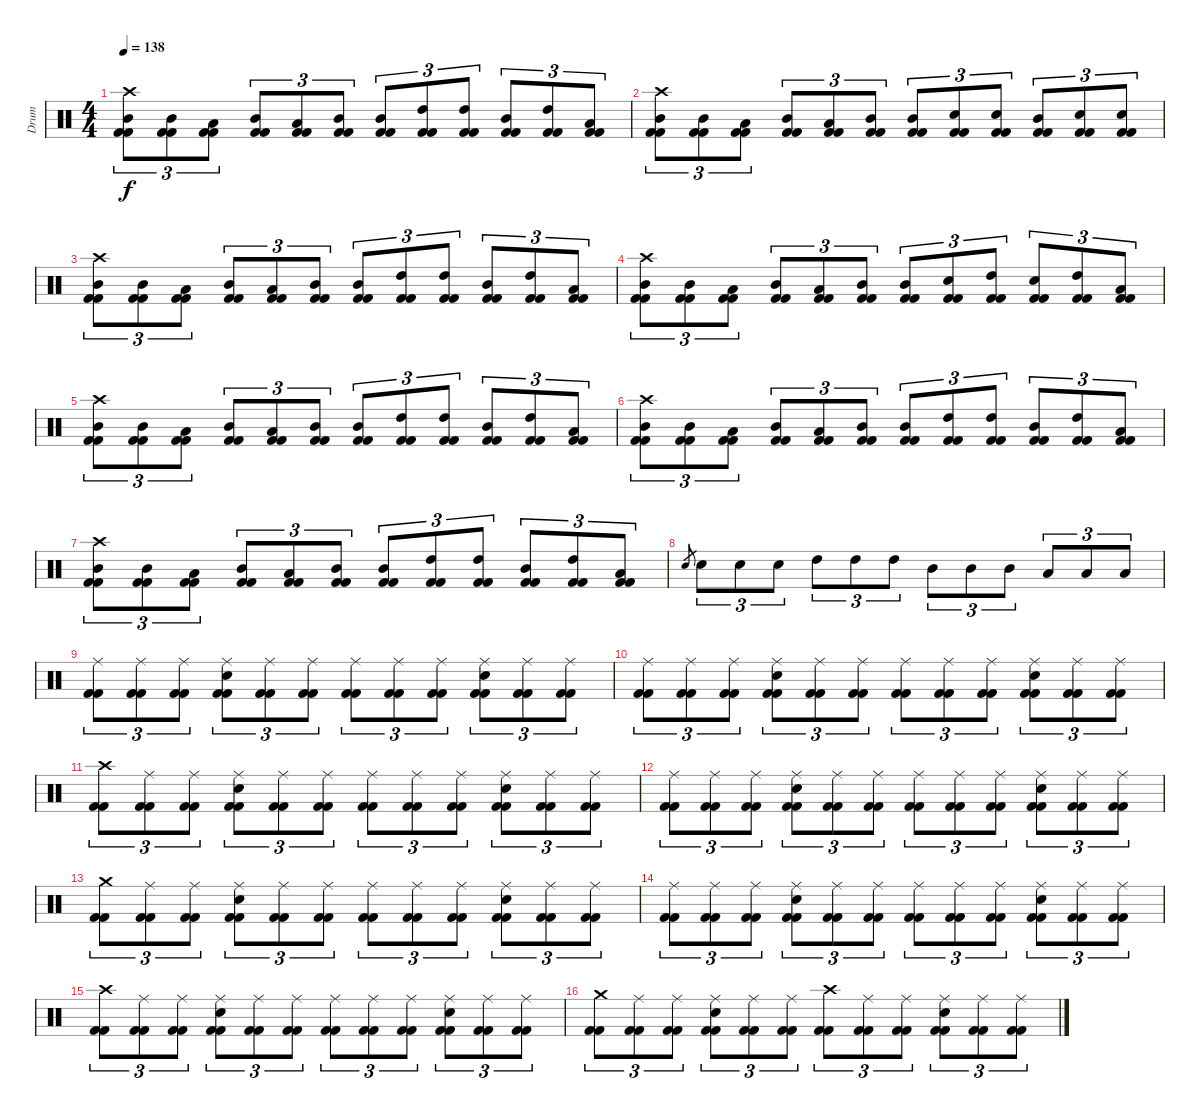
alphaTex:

\track ("Drum" "Drum") {instrument percussion}
\staff {score}
\articulation defaults
\ts (4 4)
\tempo 138
\clef neutral
\ks c
("Kick (hit) 2" "Kick (hit) 2" "Mid Tom (hit)" "Crash high (hit)").8{tu (3 2) dy f} ("Kick (hit) 2" "Kick (hit) 2" "Mid Tom (hit)").8{tu (3 2)} ("Kick (hit) 2" "Kick (hit) 2" "Low Tom (hit)").8{tu (3 2)} ("Kick (hit) 2" "Kick (hit) 2" "Mid Tom (hit)").8{tu (3 2)} ("Kick (hit) 2" "Kick (hit) 2" "Low Tom (hit)").8{tu (3 2)} ("Kick (hit) 2" "Kick (hit) 2" "Mid Tom (hit)").8{tu (3 2)} ("Kick (hit) 2" "Kick (hit) 2" "Mid Tom (hit)").8{tu (3 2)} ("Kick (hit) 2" "Kick (hit) 2" "High Tom (hit)").8{tu (3 2)} ("Kick (hit) 2" "Kick (hit) 2" "High Tom (hit)").8{tu (3 2)} ("Kick (hit) 2" "Kick (hit) 2" "Mid Tom (hit)").8{tu (3 2)} ("Kick (hit) 2" "Kick (hit) 2" "High Tom (hit)").8{tu (3 2)} ("Kick (hit) 2" "Kick (hit) 2" "Low Tom (hit)").8{tu (3 2)} |
("Kick (hit) 2" "Kick (hit) 2" "Mid Tom (hit)" "Crash high (hit)").8{tu (3 2)} ("Kick (hit) 2" "Kick (hit) 2" "Mid Tom (hit)").8{tu (3 2)} ("Kick (hit) 2" "Kick (hit) 2" "Low Tom (hit)").8{tu (3 2)} ("Kick (hit) 2" "Kick (hit) 2" "Mid Tom (hit)").8{tu (3 2)} ("Kick (hit) 2" "Kick (hit) 2" "Low Tom (hit)").8{tu (3 2)} ("Kick (hit) 2" "Kick (hit) 2" "Mid Tom (hit)").8{tu (3 2)} ("Kick (hit) 2" "Kick (hit) 2" "Mid Tom (hit)").8{tu (3 2)} ("Kick (hit) 2" "Kick (hit) 2" "Electric Snare (hit)").8{tu (3 2)} ("Kick (hit) 2" "Kick (hit) 2" "Electric Snare (hit)").8{tu (3 2)} ("Kick (hit) 2" "Kick (hit) 2" "Mid Tom (hit)").8{tu (3 2)} ("Kick (hit) 2" "Kick (hit) 2" "Electric Snare (hit)").8{tu (3 2)} ("Kick (hit) 2" "Kick (hit) 2" "Electric Snare (hit)").8{tu (3 2)} |
("Kick (hit) 2" "Kick (hit) 2" "Mid Tom (hit)" "Crash high (hit)").8{tu (3 2)} ("Kick (hit) 2" "Kick (hit) 2" "Mid Tom (hit)").8{tu (3 2)} ("Kick (hit) 2" "Kick (hit) 2" "Low Tom (hit)").8{tu (3 2)} ("Kick (hit) 2" "Kick (hit) 2" "Mid Tom (hit)").8{tu (3 2)} ("Kick (hit) 2" "Kick (hit) 2" "Low Tom (hit)").8{tu (3 2)} ("Kick (hit) 2" "Kick (hit) 2" "Mid Tom (hit)").8{tu (3 2)} ("Kick (hit) 2" "Kick (hit) 2" "Mid Tom (hit)").8{tu (3 2)} ("Kick (hit) 2" "Kick (hit) 2" "High Tom (hit)").8{tu (3 2)} ("Kick (hit) 2" "Kick (hit) 2" "High Tom (hit)").8{tu (3 2)} ("Kick (hit) 2" "Kick (hit) 2" "Mid Tom (hit)").8{tu (3 2)} ("Kick (hit) 2" "Kick (hit) 2" "High Tom (hit)").8{tu (3 2)} ("Kick (hit) 2" "Kick (hit) 2" "Low Tom (hit)").8{tu (3 2)} |
("Kick (hit) 2" "Kick (hit) 2" "Mid Tom (hit)" "Crash high (hit)").8{tu (3 2)} ("Kick (hit) 2" "Kick (hit) 2" "Mid Tom (hit)").8{tu (3 2)} ("Kick (hit) 2" "Kick (hit) 2" "Low Tom (hit)").8{tu (3 2)} ("Kick (hit) 2" "Kick (hit) 2" "Mid Tom (hit)").8{tu (3 2)} ("Kick (hit) 2" "Kick (hit) 2" "Low Tom (hit)").8{tu (3 2)} ("Kick (hit) 2" "Kick (hit) 2" "Mid Tom (hit)").8{tu (3 2)} ("Kick (hit) 2" "Kick (hit) 2" "Mid Tom (hit)").8{tu (3 2)} ("Kick (hit) 2" "Kick (hit) 2" "Electric Snare (hit)").8{tu (3 2)} ("Kick (hit) 2" "Kick (hit) 2" "High Tom (hit)").8{tu (3 2)} ("Kick (hit) 2" "Kick (hit) 2" "Electric Snare (hit)").8{tu (3 2)} ("Kick (hit) 2" "Kick (hit) 2" "High Tom (hit)").8{tu (3 2)} ("Kick (hit) 2" "Kick (hit) 2" "Low Tom (hit)").8{tu (3 2)} |
("Kick (hit) 2" "Kick (hit) 2" "Mid Tom (hit)" "Crash high (hit)").8{tu (3 2)} ("Kick (hit) 2" "Kick (hit) 2" "Mid Tom (hit)").8{tu (3 2)} ("Kick (hit) 2" "Kick (hit) 2" "Low Tom (hit)").8{tu (3 2)} ("Kick (hit) 2" "Kick (hit) 2" "Mid Tom (hit)").8{tu (3 2)} ("Kick (hit) 2" "Kick (hit) 2" "Low Tom (hit)").8{tu (3 2)} ("Kick (hit) 2" "Kick (hit) 2" "Mid Tom (hit)").8{tu (3 2)} ("Kick (hit) 2" "Kick (hit) 2" "Mid Tom (hit)").8{tu (3 2)} ("Kick (hit) 2" "Kick (hit) 2" "High Tom (hit)").8{tu (3 2)} ("Kick (hit) 2" "Kick (hit) 2" "High Tom (hit)").8{tu (3 2)} ("Kick (hit) 2" "Kick (hit) 2" "Mid Tom (hit)").8{tu (3 2)} ("Kick (hit) 2" "Kick (hit) 2" "High Tom (hit)").8{tu (3 2)} ("Kick (hit) 2" "Kick (hit) 2" "Low Tom (hit)").8{tu (3 2)} |
("Kick (hit) 2" "Kick (hit) 2" "Mid Tom (hit)" "Crash high (hit)").8{tu (3 2)} ("Kick (hit) 2" "Kick (hit) 2" "Mid Tom (hit)").8{tu (3 2)} ("Kick (hit) 2" "Kick (hit) 2" "Low Tom (hit)").8{tu (3 2)} ("Kick (hit) 2" "Kick (hit) 2" "Mid Tom (hit)").8{tu (3 2)} ("Kick (hit) 2" "Kick (hit) 2" "Low Tom (hit)").8{tu (3 2)} ("Kick (hit) 2" "Kick (hit) 2" "Mid Tom (hit)").8{tu (3 2)} ("Kick (hit) 2" "Kick (hit) 2" "Mid Tom (hit)").8{tu (3 2)} ("Kick (hit) 2" "Kick (hit) 2" "High Tom (hit)").8{tu (3 2)} ("Kick (hit) 2" "Kick (hit) 2" "High Tom (hit)").8{tu (3 2)} ("Kick (hit) 2" "Kick (hit) 2" "Mid Tom (hit)").8{tu (3 2)} ("Kick (hit) 2" "Kick (hit) 2" "High Tom (hit)").8{tu (3 2)} ("Kick (hit) 2" "Kick (hit) 2" "Low Tom (hit)").8{tu (3 2)} |
("Kick (hit) 2" "Kick (hit) 2" "Mid Tom (hit)" "Crash high (hit)").8{tu (3 2)} ("Kick (hit) 2" "Kick (hit) 2" "Mid Tom (hit)").8{tu (3 2)} ("Kick (hit) 2" "Kick (hit) 2" "Low Tom (hit)").8{tu (3 2)} ("Kick (hit) 2" "Kick (hit) 2" "Mid Tom (hit)").8{tu (3 2)} ("Kick (hit) 2" "Kick (hit) 2" "Low Tom (hit)").8{tu (3 2)} ("Kick (hit) 2" "Kick (hit) 2" "Mid Tom (hit)").8{tu (3 2)} ("Kick (hit) 2" "Kick (hit) 2" "Mid Tom (hit)").8{tu (3 2)} ("Kick (hit) 2" "Kick (hit) 2" "High Tom (hit)").8{tu (3 2)} ("Kick (hit) 2" "Kick (hit) 2" "High Tom (hit)").8{tu (3 2)} ("Kick (hit) 2" "Kick (hit) 2" "Mid Tom (hit)").8{tu (3 2)} ("Kick (hit) 2" "Kick (hit) 2" "High Tom (hit)").8{tu (3 2)} ("Kick (hit) 2" "Kick (hit) 2" "Low Tom (hit)").8{tu (3 2)} |
"Electric Snare (hit)".8{gr} "Electric Snare (hit)".8{tu (3 2)} "Electric Snare (hit)".8{tu (3 2)} "Electric Snare (hit)".8{tu (3 2)} "High Tom (hit)".8{tu (3 2)} "High Tom (hit)".8{tu (3 2)} "High Tom (hit)".8{tu (3 2)} "Mid Tom (hit)".8{tu (3 2)} "Mid Tom (hit)".8{tu (3 2)} "Mid Tom (hit)".8{tu (3 2)} "Low Tom (hit)".8{tu (3 2)} "Low Tom (hit)".8{tu (3 2)} "Low Tom (hit)".8{tu (3 2)} |
("Kick (hit) 2" "Kick (hit) 2" "Ride (middle)").8{tu (3 2)} ("Kick (hit) 2" "Kick (hit) 2" "Ride (middle)").8{tu (3 2)} ("Kick (hit) 2" "Kick (hit) 2" "Ride (middle)").8{tu (3 2)} ("Kick (hit) 2" "Kick (hit) 2" "Electric Snare (hit)" "Ride (middle)").8{tu (3 2)} ("Kick (hit) 2" "Kick (hit) 2" "Ride (middle)").8{tu (3 2)} ("Kick (hit) 2" "Kick (hit) 2" "Ride (middle)").8{tu (3 2)} ("Kick (hit) 2" "Kick (hit) 2" "Ride (middle)").8{tu (3 2)} ("Kick (hit) 2" "Kick (hit) 2" "Ride (middle)").8{tu (3 2)} ("Kick (hit) 2" "Kick (hit) 2" "Ride (middle)").8{tu (3 2)} ("Kick (hit) 2" "Kick (hit) 2" "Electric Snare (hit)" "Ride (middle)").8{tu (3 2)} ("Kick (hit) 2" "Kick (hit) 2" "Ride (middle)").8{tu (3 2)} ("Kick (hit) 2" "Kick (hit) 2" "Ride (middle)").8{tu (3 2)} |
("Kick (hit) 2" "Kick (hit) 2" "Ride (middle)").8{tu (3 2)} ("Kick (hit) 2" "Kick (hit) 2" "Ride (middle)").8{tu (3 2)} ("Kick (hit) 2" "Kick (hit) 2" "Ride (middle)").8{tu (3 2)} ("Kick (hit) 2" "Kick (hit) 2" "Electric Snare (hit)" "Ride (middle)").8{tu (3 2)} ("Kick (hit) 2" "Kick (hit) 2" "Ride (middle)").8{tu (3 2)} ("Kick (hit) 2" "Kick (hit) 2" "Ride (middle)").8{tu (3 2)} ("Kick (hit) 2" "Kick (hit) 2" "Ride (middle)").8{tu (3 2)} ("Kick (hit) 2" "Kick (hit) 2" "Ride (middle)").8{tu (3 2)} ("Kick (hit) 2" "Kick (hit) 2" "Ride (middle)").8{tu (3 2)} ("Kick (hit) 2" "Kick (hit) 2" "Electric Snare (hit)" "Ride (middle)").8{tu (3 2)} ("Kick (hit) 2" "Kick (hit) 2" "Ride (middle)").8{tu (3 2)} ("Kick (hit) 2" "Kick (hit) 2" "Ride (middle)").8{tu (3 2)} |
("Kick (hit) 2" "Kick (hit) 2" "Crash high (hit)").8{tu (3 2)} ("Kick (hit) 2" "Kick (hit) 2" "Ride (middle)").8{tu (3 2)} ("Kick (hit) 2" "Kick (hit) 2" "Ride (middle)").8{tu (3 2)} ("Kick (hit) 2" "Kick (hit) 2" "Electric Snare (hit)" "Ride (middle)").8{tu (3 2)} ("Kick (hit) 2" "Kick (hit) 2" "Ride (middle)").8{tu (3 2)} ("Kick (hit) 2" "Kick (hit) 2" "Ride (middle)").8{tu (3 2)} ("Kick (hit) 2" "Kick (hit) 2" "Ride (middle)").8{tu (3 2)} ("Kick (hit) 2" "Kick (hit) 2" "Ride (middle)").8{tu (3 2)} ("Kick (hit) 2" "Kick (hit) 2" "Ride (middle)").8{tu (3 2)} ("Kick (hit) 2" "Kick (hit) 2" "Electric Snare (hit)" "Ride (middle)").8{tu (3 2)} ("Kick (hit) 2" "Kick (hit) 2" "Ride (middle)").8{tu (3 2)} ("Kick (hit) 2" "Kick (hit) 2" "Ride (middle)").8{tu (3 2)} |
("Kick (hit) 2" "Kick (hit) 2" "Ride (middle)").8{tu (3 2)} ("Kick (hit) 2" "Kick (hit) 2" "Ride (middle)").8{tu (3 2)} ("Kick (hit) 2" "Kick (hit) 2" "Ride (middle)").8{tu (3 2)} ("Kick (hit) 2" "Kick (hit) 2" "Electric Snare (hit)" "Ride (middle)").8{tu (3 2)} ("Kick (hit) 2" "Kick (hit) 2" "Ride (middle)").8{tu (3 2)} ("Kick (hit) 2" "Kick (hit) 2" "Ride (middle)").8{tu (3 2)} ("Kick (hit) 2" "Kick (hit) 2" "Ride (middle)").8{tu (3 2)} ("Kick (hit) 2" "Kick (hit) 2" "Ride (middle)").8{tu (3 2)} ("Kick (hit) 2" "Kick (hit) 2" "Ride (middle)").8{tu (3 2)} ("Kick (hit) 2" "Kick (hit) 2" "Electric Snare (hit)" "Ride (middle)").8{tu (3 2)} ("Kick (hit) 2" "Kick (hit) 2" "Ride (middle)").8{tu (3 2)} ("Kick (hit) 2" "Kick (hit) 2" "Ride (middle)").8{tu (3 2)} |
("Kick (hit) 2" "Kick (hit) 2" "Crash medium (hit)").8{tu (3 2)} ("Kick (hit) 2" "Kick (hit) 2" "Ride (middle)").8{tu (3 2)} ("Kick (hit) 2" "Kick (hit) 2" "Ride (middle)").8{tu (3 2)} ("Kick (hit) 2" "Kick (hit) 2" "Electric Snare (hit)" "Ride (middle)").8{tu (3 2)} ("Kick (hit) 2" "Kick (hit) 2" "Ride (middle)").8{tu (3 2)} ("Kick (hit) 2" "Kick (hit) 2" "Ride (middle)").8{tu (3 2)} ("Kick (hit) 2" "Kick (hit) 2" "Ride (middle)").8{tu (3 2)} ("Kick (hit) 2" "Kick (hit) 2" "Ride (middle)").8{tu (3 2)} ("Kick (hit) 2" "Kick (hit) 2" "Ride (middle)").8{tu (3 2)} ("Kick (hit) 2" "Kick (hit) 2" "Electric Snare (hit)" "Ride (middle)").8{tu (3 2)} ("Kick (hit) 2" "Kick (hit) 2" "Ride (middle)").8{tu (3 2)} ("Kick (hit) 2" "Kick (hit) 2" "Ride (middle)").8{tu (3 2)} |
("Kick (hit) 2" "Kick (hit) 2" "Ride (middle)").8{tu (3 2)} ("Kick (hit) 2" "Kick (hit) 2" "Ride (middle)").8{tu (3 2)} ("Kick (hit) 2" "Kick (hit) 2" "Ride (middle)").8{tu (3 2)} ("Kick (hit) 2" "Kick (hit) 2" "Electric Snare (hit)" "Ride (middle)").8{tu (3 2)} ("Kick (hit) 2" "Kick (hit) 2" "Ride (middle)").8{tu (3 2)} ("Kick (hit) 2" "Kick (hit) 2" "Ride (middle)").8{tu (3 2)} ("Kick (hit) 2" "Kick (hit) 2" "Ride (middle)").8{tu (3 2)} ("Kick (hit) 2" "Kick (hit) 2" "Ride (middle)").8{tu (3 2)} ("Kick (hit) 2" "Kick (hit) 2" "Ride (middle)").8{tu (3 2)} ("Kick (hit) 2" "Kick (hit) 2" "Electric Snare (hit)" "Ride (middle)").8{tu (3 2)} ("Kick (hit) 2" "Kick (hit) 2" "Ride (middle)").8{tu (3 2)} ("Kick (hit) 2" "Kick (hit) 2" "Ride (middle)").8{tu (3 2)} |
("Kick (hit) 2" "Kick (hit) 2" "Crash high (hit)").8{tu (3 2)} ("Kick (hit) 2" "Kick (hit) 2" "Ride (middle)").8{tu (3 2)} ("Kick (hit) 2" "Kick (hit) 2" "Ride (middle)").8{tu (3 2)} ("Kick (hit) 2" "Kick (hit) 2" "Electric Snare (hit)" "Ride (middle)").8{tu (3 2)} ("Kick (hit) 2" "Kick (hit) 2" "Ride (middle)").8{tu (3 2)} ("Kick (hit) 2" "Kick (hit) 2" "Ride (middle)").8{tu (3 2)} ("Kick (hit) 2" "Kick (hit) 2" "Ride (middle)").8{tu (3 2)} ("Kick (hit) 2" "Kick (hit) 2" "Ride (middle)").8{tu (3 2)} ("Kick (hit) 2" "Kick (hit) 2" "Ride (middle)").8{tu (3 2)} ("Kick (hit) 2" "Kick (hit) 2" "Electric Snare (hit)" "Ride (middle)").8{tu (3 2)} ("Kick (hit) 2" "Kick (hit) 2" "Ride (middle)").8{tu (3 2)} ("Kick (hit) 2" "Kick (hit) 2" "Ride (middle)").8{tu (3 2)} |
("Kick (hit) 2" "Kick (hit) 2" "Crash medium (hit)").8{tu (3 2)} ("Kick (hit) 2" "Kick (hit) 2" "Ride (middle)").8{tu (3 2)} ("Kick (hit) 2" "Kick (hit) 2" "Ride (middle)").8{tu (3 2)} ("Kick (hit) 2" "Kick (hit) 2" "Electric Snare (hit)" "Ride (middle)").8{tu (3 2)} ("Kick (hit) 2" "Kick (hit) 2" "Ride (middle)").8{tu (3 2)} ("Kick (hit) 2" "Kick (hit) 2" "Ride (middle)").8{tu (3 2)} ("Kick (hit) 2" "Kick (hit) 2" "Crash high (hit)").8{tu (3 2)} ("Kick (hit) 2" "Kick (hit) 2" "Ride (middle)").8{tu (3 2)} ("Kick (hit) 2" "Kick (hit) 2" "Ride (middle)").8{tu (3 2)} ("Kick (hit) 2" "Kick (hit) 2" "Electric Snare (hit)" "Ride (middle)").8{tu (3 2)} ("Kick (hit) 2" "Kick (hit) 2" "Ride (middle)").8{tu (3 2)} ("Kick (hit) 2" "Kick (hit) 2" "Ride (middle)").8{tu (3 2)}
